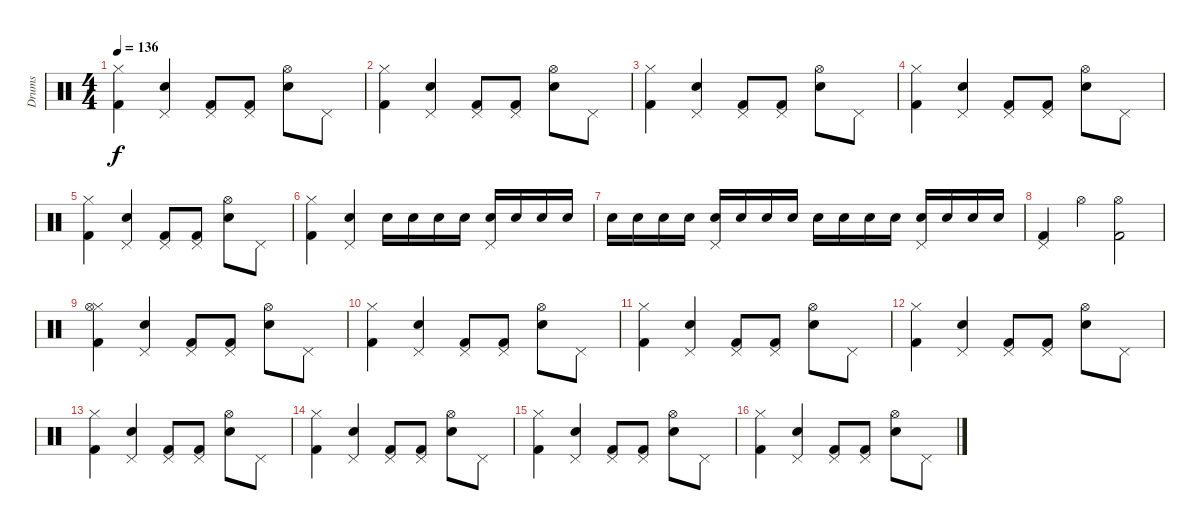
\track ("Drums" "Drums") {instrument percussion}
\staff {score}
\articulation defaults
\ts (4 4)
\tempo 136
\clef neutral
\ks c
("Hi-Hat (closed)" "Kick (hit) 2").4{dy f} ("Snare (hit) 2" "Pedal Hi-Hat (hit)").4 ("Pedal Hi-Hat (hit)" "Kick (hit) 2").8 ("Pedal Hi-Hat (hit)" "Kick (hit) 2").8 ("Snare (hit) 2" "Hi-Hat (open)").8 "Pedal Hi-Hat (hit)".8 |
("Hi-Hat (closed)" "Kick (hit) 2").4 ("Snare (hit) 2" "Pedal Hi-Hat (hit)").4 ("Pedal Hi-Hat (hit)" "Kick (hit) 2").8 ("Pedal Hi-Hat (hit)" "Kick (hit) 2").8 ("Snare (hit) 2" "Hi-Hat (open)").8 "Pedal Hi-Hat (hit)".8 |
("Hi-Hat (closed)" "Kick (hit) 2").4 ("Snare (hit) 2" "Pedal Hi-Hat (hit)").4 ("Pedal Hi-Hat (hit)" "Kick (hit) 2").8 ("Pedal Hi-Hat (hit)" "Kick (hit) 2").8 ("Snare (hit) 2" "Hi-Hat (open)").8 "Pedal Hi-Hat (hit)".8 |
("Hi-Hat (closed)" "Kick (hit) 2").4 ("Snare (hit) 2" "Pedal Hi-Hat (hit)").4 ("Pedal Hi-Hat (hit)" "Kick (hit) 2").8 ("Pedal Hi-Hat (hit)" "Kick (hit) 2").8 ("Snare (hit) 2" "Hi-Hat (open)").8 "Pedal Hi-Hat (hit)".8 |
("Hi-Hat (closed)" "Kick (hit) 2").4 ("Snare (hit) 2" "Pedal Hi-Hat (hit)").4 ("Pedal Hi-Hat (hit)" "Kick (hit) 2").8 ("Pedal Hi-Hat (hit)" "Kick (hit) 2").8 ("Snare (hit) 2" "Hi-Hat (open)").8 "Pedal Hi-Hat (hit)".8 |
("Hi-Hat (closed)" "Kick (hit) 2").4 ("Snare (hit) 2" "Pedal Hi-Hat (hit)").4 "Snare (hit) 2".16 "Snare (hit) 2".16 "Snare (hit) 2".16 "Snare (hit) 2".16 ("Snare (hit) 2" "Pedal Hi-Hat (hit)").16 "Snare (hit) 2".16 "Snare (hit) 2".16 "Snare (hit) 2".16 |
"Snare (hit) 2".16 "Snare (hit) 2".16 "Snare (hit) 2".16 "Snare (hit) 2".16 ("Snare (hit) 2" "Pedal Hi-Hat (hit)").16 "Snare (hit) 2".16 "Snare (hit) 2".16 "Snare (hit) 2".16 "Snare (hit) 2".16 "Snare (hit) 2".16 "Snare (hit) 2".16 "Snare (hit) 2".16 ("Snare (hit) 2" "Pedal Hi-Hat (hit)").16 "Snare (hit) 2".16 "Snare (hit) 2".16 "Snare (hit) 2".16 |
("Pedal Hi-Hat (hit)" "Kick (hit) 2").4 "Hi-Hat (open)".4 ("Hi-Hat (open)" "Kick (hit) 2").2 |
("Hi-Hat (closed)" "Hi-Hat (open)" "Kick (hit) 2").4 ("Snare (hit) 2" "Pedal Hi-Hat (hit)").4 ("Pedal Hi-Hat (hit)" "Kick (hit) 2").8 ("Pedal Hi-Hat (hit)" "Kick (hit) 2").8 ("Snare (hit) 2" "Hi-Hat (open)").8 "Pedal Hi-Hat (hit)".8 |
("Hi-Hat (closed)" "Kick (hit) 2").4 ("Snare (hit) 2" "Pedal Hi-Hat (hit)").4 ("Pedal Hi-Hat (hit)" "Kick (hit) 2").8 ("Pedal Hi-Hat (hit)" "Kick (hit) 2").8 ("Snare (hit) 2" "Hi-Hat (open)").8 "Pedal Hi-Hat (hit)".8 |
("Hi-Hat (closed)" "Kick (hit) 2").4 ("Snare (hit) 2" "Pedal Hi-Hat (hit)").4 ("Pedal Hi-Hat (hit)" "Kick (hit) 2").8 ("Pedal Hi-Hat (hit)" "Kick (hit) 2").8 ("Snare (hit) 2" "Hi-Hat (open)").8 "Pedal Hi-Hat (hit)".8 |
("Hi-Hat (closed)" "Kick (hit) 2").4 ("Snare (hit) 2" "Pedal Hi-Hat (hit)").4 ("Pedal Hi-Hat (hit)" "Kick (hit) 2").8 ("Pedal Hi-Hat (hit)" "Kick (hit) 2").8 ("Snare (hit) 2" "Hi-Hat (open)").8 "Pedal Hi-Hat (hit)".8 |
("Hi-Hat (closed)" "Kick (hit) 2").4 ("Snare (hit) 2" "Pedal Hi-Hat (hit)").4 ("Pedal Hi-Hat (hit)" "Kick (hit) 2").8 ("Pedal Hi-Hat (hit)" "Kick (hit) 2").8 ("Snare (hit) 2" "Hi-Hat (open)").8 "Pedal Hi-Hat (hit)".8 |
("Hi-Hat (closed)" "Kick (hit) 2").4 ("Snare (hit) 2" "Pedal Hi-Hat (hit)").4 ("Pedal Hi-Hat (hit)" "Kick (hit) 2").8 ("Pedal Hi-Hat (hit)" "Kick (hit) 2").8 ("Snare (hit) 2" "Hi-Hat (open)").8 "Pedal Hi-Hat (hit)".8 |
("Hi-Hat (closed)" "Kick (hit) 2").4 ("Snare (hit) 2" "Pedal Hi-Hat (hit)").4 ("Pedal Hi-Hat (hit)" "Kick (hit) 2").8 ("Pedal Hi-Hat (hit)" "Kick (hit) 2").8 ("Snare (hit) 2" "Hi-Hat (open)").8 "Pedal Hi-Hat (hit)".8 |
("Hi-Hat (closed)" "Kick (hit) 2").4 ("Snare (hit) 2" "Pedal Hi-Hat (hit)").4 ("Pedal Hi-Hat (hit)" "Kick (hit) 2").8 ("Pedal Hi-Hat (hit)" "Kick (hit) 2").8 ("Snare (hit) 2" "Hi-Hat (open)").8 "Pedal Hi-Hat (hit)".8
